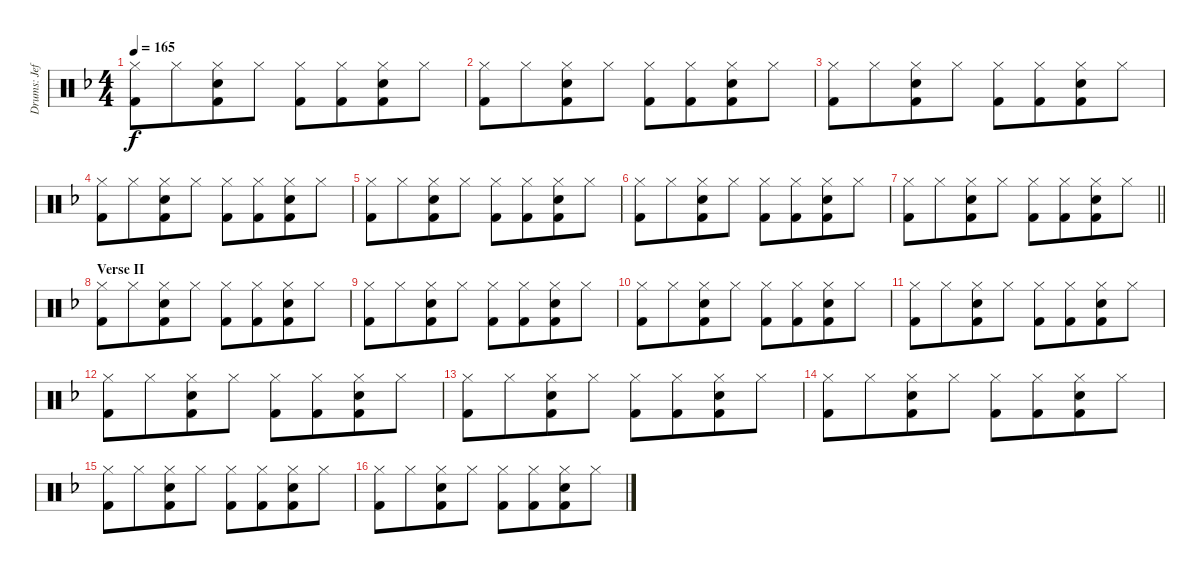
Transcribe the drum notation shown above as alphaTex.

\track ("Drums: Jeff" "Drums: Jef") {instrument percussion}
\staff {score}
\articulation defaults
\ts (4 4)
\tempo 165
\clef neutral
\ks f
("Hi-Hat (closed)" "Kick (hit) 2").8{dy f} "Hi-Hat (closed)".8{beam merge} ("Hi-Hat (closed)" "Snare (hit) 2" "Kick (hit) 2").8 "Hi-Hat (closed)".8{beam split} ("Hi-Hat (closed)" "Kick (hit) 2").8 ("Hi-Hat (closed)" "Kick (hit) 2").8{beam merge} ("Hi-Hat (closed)" "Snare (hit) 2" "Kick (hit) 2").8 "Hi-Hat (closed)".8 |
("Hi-Hat (closed)" "Kick (hit) 2").8 "Hi-Hat (closed)".8{beam merge} ("Hi-Hat (closed)" "Snare (hit) 2" "Kick (hit) 2").8 "Hi-Hat (closed)".8{beam split} ("Hi-Hat (closed)" "Kick (hit) 2").8 ("Hi-Hat (closed)" "Kick (hit) 2").8{beam merge} ("Hi-Hat (closed)" "Snare (hit) 2" "Kick (hit) 2").8 "Hi-Hat (closed)".8 |
("Hi-Hat (closed)" "Kick (hit) 2").8 "Hi-Hat (closed)".8{beam merge} ("Hi-Hat (closed)" "Snare (hit) 2" "Kick (hit) 2").8 "Hi-Hat (closed)".8{beam split} ("Hi-Hat (closed)" "Kick (hit) 2").8 ("Hi-Hat (closed)" "Kick (hit) 2").8{beam merge} ("Hi-Hat (closed)" "Snare (hit) 2" "Kick (hit) 2").8 "Hi-Hat (closed)".8 |
("Hi-Hat (closed)" "Kick (hit) 2").8 "Hi-Hat (closed)".8{beam merge} ("Hi-Hat (closed)" "Snare (hit) 2" "Kick (hit) 2").8 "Hi-Hat (closed)".8{beam split} ("Hi-Hat (closed)" "Kick (hit) 2").8 ("Hi-Hat (closed)" "Kick (hit) 2").8{beam merge} ("Hi-Hat (closed)" "Snare (hit) 2" "Kick (hit) 2").8 "Hi-Hat (closed)".8 |
("Hi-Hat (closed)" "Kick (hit) 2").8 "Hi-Hat (closed)".8{beam merge} ("Hi-Hat (closed)" "Snare (hit) 2" "Kick (hit) 2").8 "Hi-Hat (closed)".8{beam split} ("Hi-Hat (closed)" "Kick (hit) 2").8 ("Hi-Hat (closed)" "Kick (hit) 2").8{beam merge} ("Hi-Hat (closed)" "Snare (hit) 2" "Kick (hit) 2").8 "Hi-Hat (closed)".8 |
("Hi-Hat (closed)" "Kick (hit) 2").8 "Hi-Hat (closed)".8{beam merge} ("Hi-Hat (closed)" "Snare (hit) 2" "Kick (hit) 2").8 "Hi-Hat (closed)".8{beam split} ("Hi-Hat (closed)" "Kick (hit) 2").8 ("Hi-Hat (closed)" "Kick (hit) 2").8{beam merge} ("Hi-Hat (closed)" "Snare (hit) 2" "Kick (hit) 2").8 "Hi-Hat (closed)".8 |
\barLineRight lightlight
("Hi-Hat (closed)" "Kick (hit) 2").8 "Hi-Hat (closed)".8{beam merge} ("Hi-Hat (closed)" "Snare (hit) 2" "Kick (hit) 2").8 "Hi-Hat (closed)".8{beam split} ("Hi-Hat (closed)" "Kick (hit) 2").8 ("Hi-Hat (closed)" "Kick (hit) 2").8{beam merge} ("Hi-Hat (closed)" "Snare (hit) 2" "Kick (hit) 2").8 "Hi-Hat (closed)".8 |
\section ("" "Verse II")
("Hi-Hat (closed)" "Kick (hit) 2").8 "Hi-Hat (closed)".8{beam merge} ("Hi-Hat (closed)" "Snare (hit) 2" "Kick (hit) 2").8 "Hi-Hat (closed)".8{beam split} ("Hi-Hat (closed)" "Kick (hit) 2").8 ("Hi-Hat (closed)" "Kick (hit) 2").8{beam merge} ("Hi-Hat (closed)" "Snare (hit) 2" "Kick (hit) 2").8 "Hi-Hat (closed)".8 |
("Hi-Hat (closed)" "Kick (hit) 2").8 "Hi-Hat (closed)".8{beam merge} ("Hi-Hat (closed)" "Snare (hit) 2" "Kick (hit) 2").8 "Hi-Hat (closed)".8{beam split} ("Hi-Hat (closed)" "Kick (hit) 2").8 ("Hi-Hat (closed)" "Kick (hit) 2").8{beam merge} ("Hi-Hat (closed)" "Snare (hit) 2" "Kick (hit) 2").8 "Hi-Hat (closed)".8 |
("Hi-Hat (closed)" "Kick (hit) 2").8 "Hi-Hat (closed)".8{beam merge} ("Hi-Hat (closed)" "Snare (hit) 2" "Kick (hit) 2").8 "Hi-Hat (closed)".8{beam split} ("Hi-Hat (closed)" "Kick (hit) 2").8 ("Hi-Hat (closed)" "Kick (hit) 2").8{beam merge} ("Hi-Hat (closed)" "Snare (hit) 2" "Kick (hit) 2").8 "Hi-Hat (closed)".8 |
("Hi-Hat (closed)" "Kick (hit) 2").8 "Hi-Hat (closed)".8{beam merge} ("Hi-Hat (closed)" "Snare (hit) 2" "Kick (hit) 2").8 "Hi-Hat (closed)".8{beam split} ("Hi-Hat (closed)" "Kick (hit) 2").8 ("Hi-Hat (closed)" "Kick (hit) 2").8{beam merge} ("Hi-Hat (closed)" "Snare (hit) 2" "Kick (hit) 2").8 "Hi-Hat (closed)".8 |
("Hi-Hat (closed)" "Kick (hit) 2").8 "Hi-Hat (closed)".8{beam merge} ("Hi-Hat (closed)" "Snare (hit) 2" "Kick (hit) 2").8 "Hi-Hat (closed)".8{beam split} ("Hi-Hat (closed)" "Kick (hit) 2").8 ("Hi-Hat (closed)" "Kick (hit) 2").8{beam merge} ("Hi-Hat (closed)" "Snare (hit) 2" "Kick (hit) 2").8 "Hi-Hat (closed)".8 |
("Hi-Hat (closed)" "Kick (hit) 2").8 "Hi-Hat (closed)".8{beam merge} ("Hi-Hat (closed)" "Snare (hit) 2" "Kick (hit) 2").8 "Hi-Hat (closed)".8{beam split} ("Hi-Hat (closed)" "Kick (hit) 2").8 ("Hi-Hat (closed)" "Kick (hit) 2").8{beam merge} ("Hi-Hat (closed)" "Snare (hit) 2" "Kick (hit) 2").8 "Hi-Hat (closed)".8 |
("Hi-Hat (closed)" "Kick (hit) 2").8 "Hi-Hat (closed)".8{beam merge} ("Hi-Hat (closed)" "Snare (hit) 2" "Kick (hit) 2").8 "Hi-Hat (closed)".8{beam split} ("Hi-Hat (closed)" "Kick (hit) 2").8 ("Hi-Hat (closed)" "Kick (hit) 2").8{beam merge} ("Hi-Hat (closed)" "Snare (hit) 2" "Kick (hit) 2").8 "Hi-Hat (closed)".8 |
("Hi-Hat (closed)" "Kick (hit) 2").8 "Hi-Hat (closed)".8{beam merge} ("Hi-Hat (closed)" "Snare (hit) 2" "Kick (hit) 2").8 "Hi-Hat (closed)".8{beam split} ("Hi-Hat (closed)" "Kick (hit) 2").8 ("Hi-Hat (closed)" "Kick (hit) 2").8{beam merge} ("Hi-Hat (closed)" "Snare (hit) 2" "Kick (hit) 2").8 "Hi-Hat (closed)".8 |
("Hi-Hat (closed)" "Kick (hit) 2").8 "Hi-Hat (closed)".8{beam merge} ("Hi-Hat (closed)" "Snare (hit) 2" "Kick (hit) 2").8 "Hi-Hat (closed)".8{beam split} ("Hi-Hat (closed)" "Kick (hit) 2").8 ("Hi-Hat (closed)" "Kick (hit) 2").8{beam merge} ("Hi-Hat (closed)" "Snare (hit) 2" "Kick (hit) 2").8 "Hi-Hat (closed)".8
